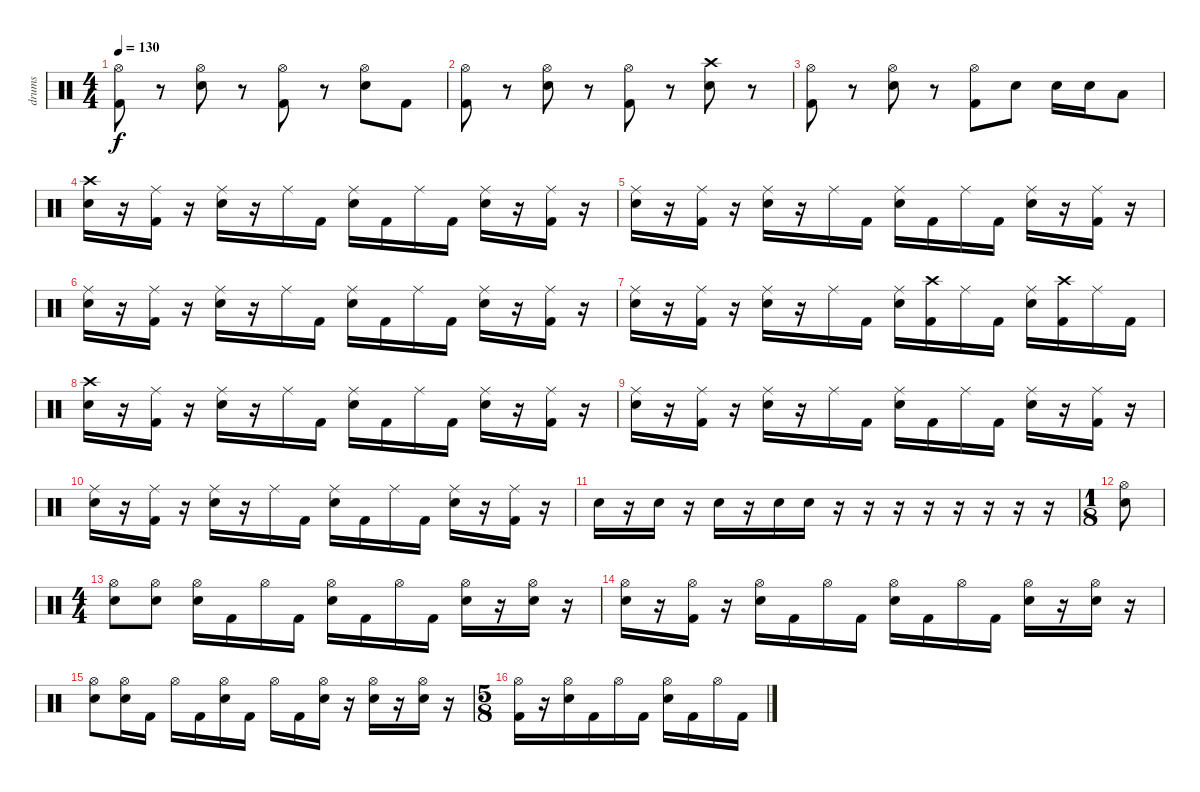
\track ("drums" "drums") {instrument percussion}
\staff {score}
\articulation defaults
\ts (4 4)
\tempo 130
\clef neutral
\ks c
("Hi-Hat (open)" "Kick (hit) 2").8{dy f} r.8 ("Hi-Hat (open)" "Snare (hit) 2").8 r.8 ("Hi-Hat (open)" "Kick (hit) 2").8 r.8 ("Hi-Hat (open)" "Snare (hit) 2").8 "Kick (hit) 2".8 |
("Hi-Hat (open)" "Kick (hit) 2").8 r.8 ("Hi-Hat (open)" "Snare (hit) 2").8 r.8 ("Hi-Hat (open)" "Kick (hit) 2").8 r.8 ("Crash high (hit)" "Snare (hit) 2").8 r.8 |
("Hi-Hat (open)" "Kick (hit) 2").8 r.8 ("Hi-Hat (open)" "Snare (hit) 2").8 r.8 ("Hi-Hat (open)" "Kick (hit) 2").8 "Snare (hit) 2".8 "Snare (hit) 2".16 "Snare (hit) 2".16 "Low Tom (hit)".8 |
("Crash high (hit)" "Snare (hit) 2").16 r.16 ("Ride (middle)" "Kick (hit) 2").16 r.16 ("Ride (middle)" "Snare (hit) 2").16 r.16 "Ride (middle)".16 "Kick (hit) 2".16 ("Ride (middle)" "Snare (hit) 2").16 "Kick (hit) 2".16 "Ride (middle)".16 "Kick (hit) 2".16 ("Ride (middle)" "Snare (hit) 2").16 r.16 ("Ride (middle)" "Kick (hit) 2").16 r.16 |
("Ride (middle)" "Snare (hit) 2").16 r.16 ("Ride (middle)" "Kick (hit) 2").16 r.16 ("Ride (middle)" "Snare (hit) 2").16 r.16 "Ride (middle)".16 "Kick (hit) 2".16 ("Ride (middle)" "Snare (hit) 2").16 "Kick (hit) 2".16 "Ride (middle)".16 "Kick (hit) 2".16 ("Ride (middle)" "Snare (hit) 2").16 r.16 ("Ride (middle)" "Kick (hit) 2").16 r.16 |
("Ride (middle)" "Snare (hit) 2").16 r.16 ("Ride (middle)" "Kick (hit) 2").16 r.16 ("Ride (middle)" "Snare (hit) 2").16 r.16 "Ride (middle)".16 "Kick (hit) 2".16 ("Ride (middle)" "Snare (hit) 2").16 "Kick (hit) 2".16 "Ride (middle)".16 "Kick (hit) 2".16 ("Ride (middle)" "Snare (hit) 2").16 r.16 ("Ride (middle)" "Kick (hit) 2").16 r.16 |
("Ride (middle)" "Snare (hit) 2").16 r.16 ("Ride (middle)" "Kick (hit) 2").16 r.16 ("Ride (middle)" "Snare (hit) 2").16 r.16 "Ride (middle)".16 "Kick (hit) 2".16 ("Ride (middle)" "Snare (hit) 2").16 ("Crash high (hit)" "Kick (hit) 2").16 "Ride (middle)".16 "Kick (hit) 2".16 ("Ride (middle)" "Snare (hit) 2").16 ("Crash high (hit)" "Kick (hit) 2").16 "Ride (middle)".16 "Kick (hit) 2".16 |
("Crash high (hit)" "Snare (hit) 2").16 r.16 ("Ride (middle)" "Kick (hit) 2").16 r.16 ("Ride (middle)" "Snare (hit) 2").16 r.16 "Ride (middle)".16 "Kick (hit) 2".16 ("Ride (middle)" "Snare (hit) 2").16 "Kick (hit) 2".16 "Ride (middle)".16 "Kick (hit) 2".16 ("Ride (middle)" "Snare (hit) 2").16 r.16 ("Ride (middle)" "Kick (hit) 2").16 r.16 |
("Ride (middle)" "Snare (hit) 2").16 r.16 ("Ride (middle)" "Kick (hit) 2").16 r.16 ("Ride (middle)" "Snare (hit) 2").16 r.16 "Ride (middle)".16 "Kick (hit) 2".16 ("Ride (middle)" "Snare (hit) 2").16 "Kick (hit) 2".16 "Ride (middle)".16 "Kick (hit) 2".16 ("Ride (middle)" "Snare (hit) 2").16 r.16 ("Ride (middle)" "Kick (hit) 2").16 r.16 |
("Ride (middle)" "Snare (hit) 2").16 r.16 ("Ride (middle)" "Kick (hit) 2").16 r.16 ("Ride (middle)" "Snare (hit) 2").16 r.16 "Ride (middle)".16 "Kick (hit) 2".16 ("Ride (middle)" "Snare (hit) 2").16 "Kick (hit) 2".16 "Ride (middle)".16 "Kick (hit) 2".16 ("Ride (middle)" "Snare (hit) 2").16 r.16 ("Ride (middle)" "Kick (hit) 2").16 r.16 |
"Snare (hit) 2".16 r.16 "Snare (hit) 2".16 r.16 "Snare (hit) 2".16 r.16 "Snare (hit) 2".16 "Snare (hit) 2".16 r.16 r.16 r.16 r.16 r.16 r.16 r.16 r.16 |
\ts (1 8)
("Hi-Hat (open)" "Snare (hit) 2").8 |
\ts (4 4)
("Hi-Hat (open)" "Snare (hit) 2").8 ("Hi-Hat (open)" "Snare (hit) 2").8 ("Hi-Hat (open)" "Snare (hit) 2").16 "Kick (hit) 2".16 "Hi-Hat (open)".16 "Kick (hit) 2".16 ("Hi-Hat (open)" "Snare (hit) 2").16 "Kick (hit) 2".16 "Hi-Hat (open)".16 "Kick (hit) 2".16 ("Hi-Hat (open)" "Snare (hit) 2").16 r.16 ("Hi-Hat (open)" "Snare (hit) 2").16 r.16 |
("Hi-Hat (open)" "Snare (hit) 2").16 r.16 ("Hi-Hat (open)" "Kick (hit) 2").16 r.16 ("Hi-Hat (open)" "Snare (hit) 2").16 "Kick (hit) 2".16 "Hi-Hat (open)".16 "Kick (hit) 2".16 ("Hi-Hat (open)" "Snare (hit) 2").16 "Kick (hit) 2".16 "Hi-Hat (open)".16 "Kick (hit) 2".16 ("Hi-Hat (open)" "Snare (hit) 2").16 r.16 ("Hi-Hat (open)" "Snare (hit) 2").16 r.16 |
("Hi-Hat (open)" "Snare (hit) 2").8 ("Hi-Hat (open)" "Snare (hit) 2").16 "Kick (hit) 2".16 "Hi-Hat (open)".16 "Kick (hit) 2".16 ("Hi-Hat (open)" "Snare (hit) 2").16 "Kick (hit) 2".16 "Hi-Hat (open)".16 "Kick (hit) 2".16 ("Hi-Hat (open)" "Snare (hit) 2").16 r.16 ("Hi-Hat (open)" "Snare (hit) 2").16 r.16 ("Hi-Hat (open)" "Snare (hit) 2").16 r.16 |
\ts (5 8)
("Hi-Hat (open)" "Kick (hit) 2").16 r.16 ("Hi-Hat (open)" "Snare (hit) 2").16 "Kick (hit) 2".16 "Hi-Hat (open)".16 "Kick (hit) 2".16 ("Hi-Hat (open)" "Snare (hit) 2").16 "Kick (hit) 2".16 "Hi-Hat (open)".16 "Kick (hit) 2".16
